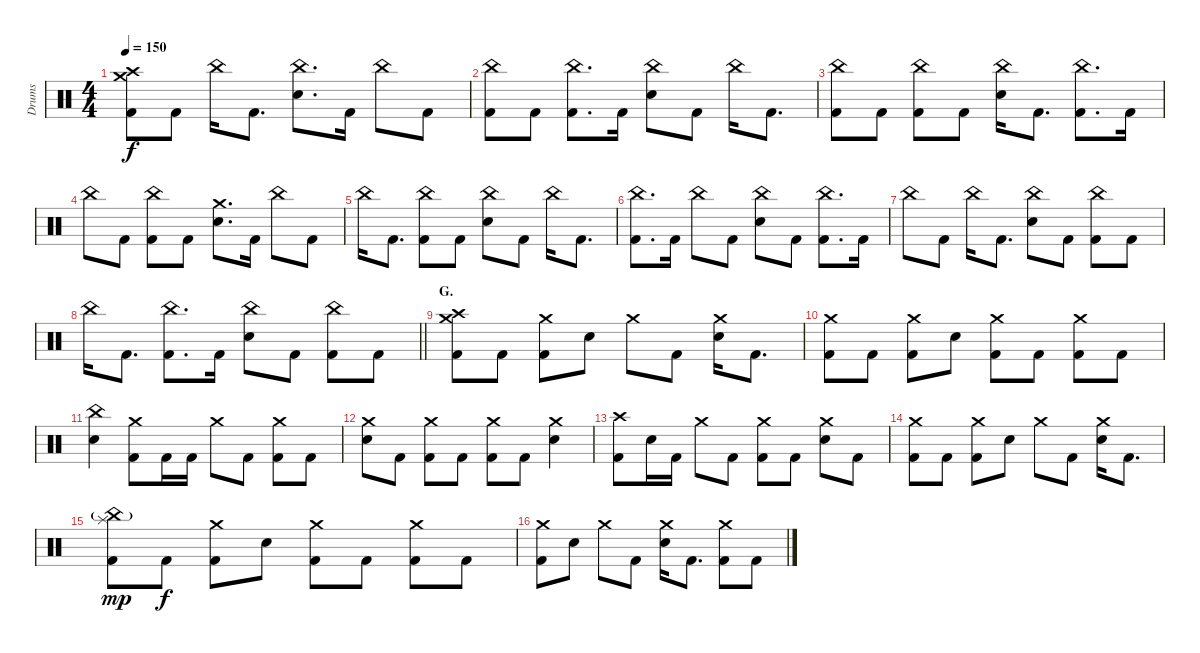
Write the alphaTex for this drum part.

\track ("Drums" "Drums") {instrument percussion}
\staff {score}
\articulation defaults
\ts (4 4)
\tempo 150
\clef neutral
\ks c
("Crash medium (hit)" "Crash high (hit)" "Kick (hit) 2").8{dy f} "Kick (hit) 2".8 "China (hit)".16 "Kick (hit) 2".8{d} ("China (hit)" "Electric Snare (hit)").8{d} "Kick (hit) 2".16 "China (hit)".8 "Kick (hit) 2".8 |
("China (hit)" "Kick (hit) 2").8 "Kick (hit) 2".8 ("China (hit)" "Kick (hit) 2").8{d} "Kick (hit) 2".16 ("China (hit)" "Electric Snare (hit)").8 "Kick (hit) 2".8 "China (hit)".16 "Kick (hit) 2".8{d} |
("China (hit)" "Kick (hit) 2").8 "Kick (hit) 2".8 ("China (hit)" "Kick (hit) 2").8 "Kick (hit) 2".8 ("China (hit)" "Electric Snare (hit)").16 "Kick (hit) 2".8{d} ("China (hit)" "Kick (hit) 2").8{d} "Kick (hit) 2".16 |
"China (hit)".8 "Kick (hit) 2".8 ("China (hit)" "Kick (hit) 2").8 "Kick (hit) 2".8 ("Crash medium (hit)" "Electric Snare (hit)").8{d} "Kick (hit) 2".16 "China (hit)".8 "Kick (hit) 2".8 |
"China (hit)".16 "Kick (hit) 2".8{d} ("China (hit)" "Kick (hit) 2").8 "Kick (hit) 2".8 ("China (hit)" "Electric Snare (hit)").8 "Kick (hit) 2".8 "China (hit)".16 "Kick (hit) 2".8{d} |
("China (hit)" "Kick (hit) 2").8{d} "Kick (hit) 2".16 "China (hit)".8 "Kick (hit) 2".8 ("China (hit)" "Electric Snare (hit)").8 "Kick (hit) 2".8 ("China (hit)" "Kick (hit) 2").8{d} "Kick (hit) 2".16 |
"China (hit)".8 "Kick (hit) 2".8 "China (hit)".16 "Kick (hit) 2".8{d} ("China (hit)" "Electric Snare (hit)").8 "Kick (hit) 2".8 ("China (hit)" "Kick (hit) 2").8 "Kick (hit) 2".8 |
\barLineRight lightlight "China (hit)".16 "Kick (hit) 2".8{d}
("China (hit)" "Kick (hit) 2").8{d} "Kick (hit) 2".16 ("China (hit)" "Electric Snare (hit)").8 "Kick (hit) 2".8 ("China (hit)" "Kick (hit) 2").8 "Kick (hit) 2".8 |
\section ("" "G.")
("Crash medium (hit)" "Crash high (hit)" "Kick (hit) 2").8 "Kick (hit) 2".8 ("Crash medium (hit)" "Kick (hit) 2").8 "Electric Snare (hit)".8 "Crash medium (hit)".8 "Kick (hit) 2".8 ("Crash medium (hit)" "Electric Snare (hit)").16 "Kick (hit) 2".8{d} |
("Crash medium (hit)" "Kick (hit) 2").8 "Kick (hit) 2".8 ("Crash medium (hit)" "Kick (hit) 2").8 "Electric Snare (hit)".8 ("Crash medium (hit)" "Kick (hit) 2").8 "Kick (hit) 2".8 ("Crash medium (hit)" "Kick (hit) 2").8 "Kick (hit) 2".8 |
("China (hit)" "Electric Snare (hit)").4 ("Crash medium (hit)" "Kick (hit) 2").8 "Kick (hit) 2".16 "Kick (hit) 2".16 "Crash medium (hit)".8 "Kick (hit) 2".8 ("Crash medium (hit)" "Kick (hit) 2").8 "Kick (hit) 2".8 |
("Crash medium (hit)" "Electric Snare (hit)").8 "Kick (hit) 2".8 ("Crash medium (hit)" "Kick (hit) 2").8 "Kick (hit) 2".8 ("Crash medium (hit)" "Kick (hit) 2").8 "Kick (hit) 2".8 ("Crash medium (hit)" "Electric Snare (hit)").4 |
("Crash high (hit)" "Kick (hit) 2").8 "Electric Snare (hit)".16 "Kick (hit) 2".16 "Crash medium (hit)".8 "Kick (hit) 2".8 ("Crash medium (hit)" "Kick (hit) 2").8 "Kick (hit) 2".8 ("Crash medium (hit)" "Electric Snare (hit)").8 "Kick (hit) 2".8 |
("Crash medium (hit)" "Kick (hit) 2").8 "Kick (hit) 2".8 ("Crash medium (hit)" "Kick (hit) 2").8 "Electric Snare (hit)".8 "Crash medium (hit)".8 "Kick (hit) 2".8 ("Crash medium (hit)" "Electric Snare (hit)").16 "Kick (hit) 2".8{d} |
("China (hit)"{g} "Splash (hit)" "Kick (hit) 2").8{dy mp} "Kick (hit) 2".8{dy f} ("Crash medium (hit)" "Kick (hit) 2").8 "Electric Snare (hit)".8 ("Crash medium (hit)" "Kick (hit) 2").8 "Kick (hit) 2".8 ("Crash medium (hit)" "Kick (hit) 2").8 "Kick (hit) 2".8 |
("Crash medium (hit)" "Kick (hit) 2").8 "Electric Snare (hit)".8 "Crash medium (hit)".8 "Kick (hit) 2".8 ("Crash medium (hit)" "Electric Snare (hit)").16 "Kick (hit) 2".8{d} ("Crash medium (hit)" "Kick (hit) 2").8 "Kick (hit) 2".8
